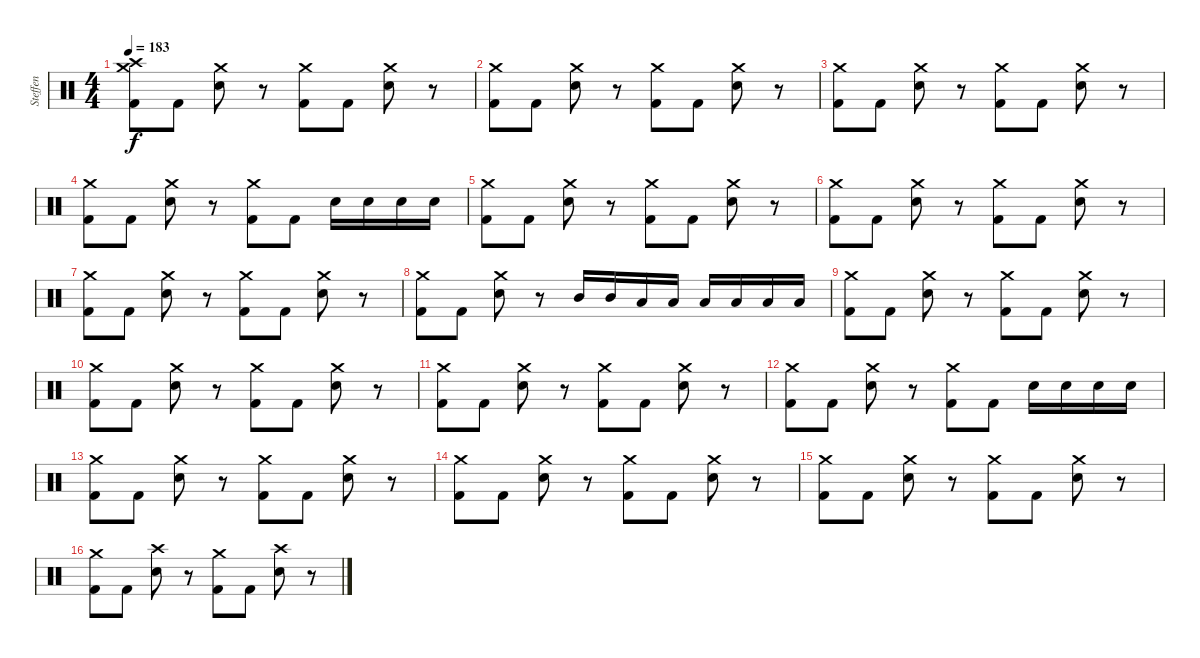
\track ("Steffen" "Steffen") {instrument percussion}
\staff {score}
\articulation defaults
\ts (4 4)
\tempo 183
\clef neutral
\ks c
("Crash high (hit)" "Crash medium (hit)" "Kick (hit) 2").8{dy f} "Kick (hit) 2".8 ("Crash medium (hit)" "Snare (hit) 2").8 r.8 ("Crash medium (hit)" "Kick (hit) 2").8 "Kick (hit) 2".8 ("Crash medium (hit)" "Snare (hit) 2").8 r.8 |
("Crash medium (hit)" "Kick (hit) 2").8 "Kick (hit) 2".8 ("Crash medium (hit)" "Snare (hit) 2").8 r.8 ("Crash medium (hit)" "Kick (hit) 2").8 "Kick (hit) 2".8 ("Crash medium (hit)" "Snare (hit) 2").8 r.8 |
("Crash medium (hit)" "Kick (hit) 2").8 "Kick (hit) 2".8 ("Crash medium (hit)" "Snare (hit) 2").8 r.8 ("Crash medium (hit)" "Kick (hit) 2").8 "Kick (hit) 2".8 ("Crash medium (hit)" "Snare (hit) 2").8 r.8 |
("Crash medium (hit)" "Kick (hit) 2").8 "Kick (hit) 2".8 ("Crash medium (hit)" "Snare (hit) 2").8 r.8 ("Crash medium (hit)" "Kick (hit) 2").8 "Kick (hit) 2".8 "Snare (hit) 2".16 "Snare (hit) 2".16 "Snare (hit) 2".16 "Snare (hit) 2".16 |
("Crash medium (hit)" "Kick (hit) 2").8 "Kick (hit) 2".8 ("Crash medium (hit)" "Snare (hit) 2").8 r.8 ("Crash medium (hit)" "Kick (hit) 2").8 "Kick (hit) 2".8 ("Crash medium (hit)" "Snare (hit) 2").8 r.8 |
("Crash medium (hit)" "Kick (hit) 2").8 "Kick (hit) 2".8 ("Crash medium (hit)" "Snare (hit) 2").8 r.8 ("Crash medium (hit)" "Kick (hit) 2").8 "Kick (hit) 2".8 ("Crash medium (hit)" "Snare (hit) 2").8 r.8 |
("Crash medium (hit)" "Kick (hit) 2").8 "Kick (hit) 2".8 ("Crash medium (hit)" "Snare (hit) 2").8 r.8 ("Crash medium (hit)" "Kick (hit) 2").8 "Kick (hit) 2".8 ("Crash medium (hit)" "Snare (hit) 2").8 r.8 |
("Crash medium (hit)" "Kick (hit) 2").8 "Kick (hit) 2".8 ("Crash medium (hit)" "Snare (hit) 2").8 r.8 "Mid Tom (hit)".16 "Mid Tom (hit)".16 "Low Tom (hit)".16 "Low Tom (hit)".16 "Low Floor Tom (hit)".16 "Low Floor Tom (hit)".16 "Low Floor Tom (hit)".16 "Low Floor Tom (hit)".16 |
("Crash medium (hit)" "Kick (hit) 2").8 "Kick (hit) 2".8 ("Crash medium (hit)" "Snare (hit) 2").8 r.8 ("Crash medium (hit)" "Kick (hit) 2").8 "Kick (hit) 2".8 ("Crash medium (hit)" "Snare (hit) 2").8 r.8 |
("Crash medium (hit)" "Kick (hit) 2").8 "Kick (hit) 2".8 ("Crash medium (hit)" "Snare (hit) 2").8 r.8 ("Crash medium (hit)" "Kick (hit) 2").8 "Kick (hit) 2".8 ("Crash medium (hit)" "Snare (hit) 2").8 r.8 |
("Crash medium (hit)" "Kick (hit) 2").8 "Kick (hit) 2".8 ("Crash medium (hit)" "Snare (hit) 2").8 r.8 ("Crash medium (hit)" "Kick (hit) 2").8 "Kick (hit) 2".8 ("Crash medium (hit)" "Snare (hit) 2").8 r.8 |
("Crash medium (hit)" "Kick (hit) 2").8 "Kick (hit) 2".8 ("Crash medium (hit)" "Snare (hit) 2").8 r.8 ("Crash medium (hit)" "Kick (hit) 2").8 "Kick (hit) 2".8 "Snare (hit) 2".16 "Snare (hit) 2".16 "Snare (hit) 2".16 "Snare (hit) 2".16 |
("Crash medium (hit)" "Kick (hit) 2").8 "Kick (hit) 2".8 ("Crash medium (hit)" "Snare (hit) 2").8 r.8 ("Crash medium (hit)" "Kick (hit) 2").8 "Kick (hit) 2".8 ("Crash medium (hit)" "Snare (hit) 2").8 r.8 |
("Crash medium (hit)" "Kick (hit) 2").8 "Kick (hit) 2".8 ("Crash medium (hit)" "Snare (hit) 2").8 r.8 ("Crash medium (hit)" "Kick (hit) 2").8 "Kick (hit) 2".8 ("Crash medium (hit)" "Snare (hit) 2").8 r.8 |
("Crash medium (hit)" "Kick (hit) 2").8 "Kick (hit) 2".8 ("Crash medium (hit)" "Snare (hit) 2").8 r.8 ("Crash medium (hit)" "Kick (hit) 2").8 "Kick (hit) 2".8 ("Crash medium (hit)" "Snare (hit) 2").8 r.8 |
("Crash medium (hit)" "Kick (hit) 2").8 "Kick (hit) 2".8 ("Crash high (hit)" "Snare (hit) 2").8 r.8 ("Crash medium (hit)" "Kick (hit) 2").8 "Kick (hit) 2".8 ("Crash high (hit)" "Snare (hit) 2").8 r.8
